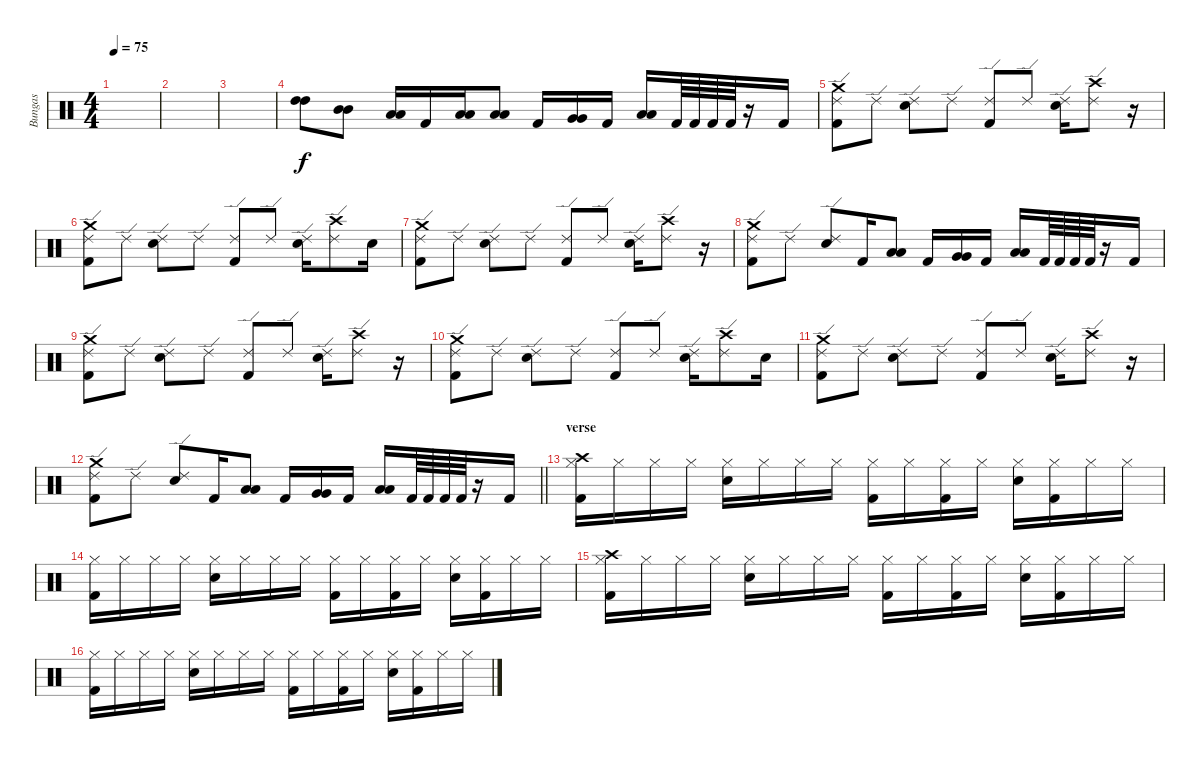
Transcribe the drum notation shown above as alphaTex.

\track ("Bungas" "Bungas") {instrument percussion}
\staff {score}
\articulation defaults
\ts (4 4)
\tempo 75
\clef neutral
\ks c
|
|
|
("High Tom (hit)" "High Tom (hit)").8 ("Mid Tom (hit)" "Mid Tom (hit)").8 ("Low Tom (hit)" "Low Tom (hit)").16 "Kick (hit) 2".16 ("Low Tom (hit)" "Low Tom (hit)").16 ("Low Tom (hit)" "Low Tom (hit)").8 "Kick (hit) 2".16 ("Very Low Tom (hit)" "Very Low Tom (hit)").16 "Kick (hit) 2".16 ("Low Floor Tom (hit)" "Low Floor Tom (hit)").16 "Kick (hit) 2".64 "Kick (hit) 2".64 "Kick (hit) 2".64 "Kick (hit) 2".64 r.16 "Kick (hit) 2".16 |
("Ride (edge) 2" "Crash medium (hit)" "Kick (hit) 2").8 "Ride (edge) 2".8 ("Ride (edge) 2" "Electric Snare (hit)").8 "Ride (edge) 2".8 ("Ride (edge) 2" "Kick (hit) 2").8 "Ride (edge) 2".8 ("Ride (edge) 2" "Electric Snare (hit)").16 ("Ride (edge) 2" "Crash high (hit)").8 r.16 |
("Ride (edge) 2" "Crash medium (hit)" "Kick (hit) 2").8 "Ride (edge) 2".8 ("Ride (edge) 2" "Electric Snare (hit)").8 "Ride (edge) 2".8 ("Ride (edge) 2" "Kick (hit) 2").8 "Ride (edge) 2".8 ("Ride (edge) 2" "Electric Snare (hit)").16 ("Ride (edge) 2" "Crash high (hit)").8 "Electric Snare (hit)".16 |
("Ride (edge) 2" "Crash medium (hit)" "Kick (hit) 2").8 "Ride (edge) 2".8 ("Ride (edge) 2" "Electric Snare (hit)").8 "Ride (edge) 2".8 ("Ride (edge) 2" "Kick (hit) 2").8 "Ride (edge) 2".8 ("Ride (edge) 2" "Electric Snare (hit)").16 ("Ride (edge) 2" "Crash high (hit)").8 r.16 |
("Ride (edge) 2" "Crash medium (hit)" "Kick (hit) 2").8 "Ride (edge) 2".8 ("Ride (edge) 2" "Electric Snare (hit)").8 "Kick (hit) 2".16 ("Low Tom (hit)" "Low Tom (hit)").8 "Kick (hit) 2".16 ("Very Low Tom (hit)" "Very Low Tom (hit)").16 "Kick (hit) 2".16 ("Low Floor Tom (hit)" "Low Floor Tom (hit)").16 "Kick (hit) 2".64 "Kick (hit) 2".64 "Kick (hit) 2".64 "Kick (hit) 2".64 r.16 "Kick (hit) 2".16 |
("Ride (edge) 2" "Crash medium (hit)" "Kick (hit) 2").8 "Ride (edge) 2".8 ("Ride (edge) 2" "Electric Snare (hit)").8 "Ride (edge) 2".8 ("Ride (edge) 2" "Kick (hit) 2").8 "Ride (edge) 2".8 ("Ride (edge) 2" "Electric Snare (hit)").16 ("Ride (edge) 2" "Crash high (hit)").8 r.16 |
("Ride (edge) 2" "Crash medium (hit)" "Kick (hit) 2").8 "Ride (edge) 2".8 ("Ride (edge) 2" "Electric Snare (hit)").8 "Ride (edge) 2".8 ("Ride (edge) 2" "Kick (hit) 2").8 "Ride (edge) 2".8 ("Ride (edge) 2" "Electric Snare (hit)").16 ("Ride (edge) 2" "Crash high (hit)").8 "Electric Snare (hit)".16 |
("Ride (edge) 2" "Crash medium (hit)" "Kick (hit) 2").8 "Ride (edge) 2".8 ("Ride (edge) 2" "Electric Snare (hit)").8 "Ride (edge) 2".8 ("Ride (edge) 2" "Kick (hit) 2").8 "Ride (edge) 2".8 ("Ride (edge) 2" "Electric Snare (hit)").16 ("Ride (edge) 2" "Crash high (hit)").8 r.16 |
\barLineRight lightlight
("Ride (edge) 2" "Crash medium (hit)" "Kick (hit) 2").8 "Ride (edge) 2".8 ("Ride (edge) 2" "Electric Snare (hit)").8 "Kick (hit) 2".16 ("Low Tom (hit)" "Low Tom (hit)").8 "Kick (hit) 2".16 ("Very Low Tom (hit)" "Very Low Tom (hit)").16 "Kick (hit) 2".16 ("Low Floor Tom (hit)" "Low Floor Tom (hit)").16 "Kick (hit) 2".64 "Kick (hit) 2".64 "Kick (hit) 2".64 "Kick (hit) 2".64 r.16 "Kick (hit) 2".16 |
\section ("" "verse")
("Hi-Hat (closed)" "Crash high (hit)" "Kick (hit) 2").16 "Hi-Hat (closed)".16 "Hi-Hat (closed)".16 "Hi-Hat (closed)".16 ("Hi-Hat (closed)" "Electric Snare (hit)").16 "Hi-Hat (closed)".16 "Hi-Hat (closed)".16 "Hi-Hat (closed)".16 ("Hi-Hat (closed)" "Kick (hit) 2").16 "Hi-Hat (closed)".16 ("Hi-Hat (closed)" "Kick (hit) 2").16 "Hi-Hat (closed)".16 ("Hi-Hat (closed)" "Electric Snare (hit)").16 ("Hi-Hat (closed)" "Kick (hit) 2").16 "Hi-Hat (closed)".16 "Hi-Hat (closed)".16 |
("Hi-Hat (closed)" "Kick (hit) 2").16 "Hi-Hat (closed)".16 "Hi-Hat (closed)".16 "Hi-Hat (closed)".16 ("Hi-Hat (closed)" "Electric Snare (hit)").16 "Hi-Hat (closed)".16 "Hi-Hat (closed)".16 "Hi-Hat (closed)".16 ("Hi-Hat (closed)" "Kick (hit) 2").16 "Hi-Hat (closed)".16 ("Hi-Hat (closed)" "Kick (hit) 2").16 "Hi-Hat (closed)".16 ("Hi-Hat (closed)" "Electric Snare (hit)").16 ("Hi-Hat (closed)" "Kick (hit) 2").16 "Hi-Hat (closed)".16 "Hi-Hat (closed)".16 |
("Hi-Hat (closed)" "Crash high (hit)" "Kick (hit) 2").16 "Hi-Hat (closed)".16 "Hi-Hat (closed)".16 "Hi-Hat (closed)".16 ("Hi-Hat (closed)" "Electric Snare (hit)").16 "Hi-Hat (closed)".16 "Hi-Hat (closed)".16 "Hi-Hat (closed)".16 ("Hi-Hat (closed)" "Kick (hit) 2").16 "Hi-Hat (closed)".16 ("Hi-Hat (closed)" "Kick (hit) 2").16 "Hi-Hat (closed)".16 ("Hi-Hat (closed)" "Electric Snare (hit)").16 ("Hi-Hat (closed)" "Kick (hit) 2").16 "Hi-Hat (closed)".16 "Hi-Hat (closed)".16 |
("Hi-Hat (closed)" "Kick (hit) 2").16 "Hi-Hat (closed)".16 "Hi-Hat (closed)".16 "Hi-Hat (closed)".16 ("Hi-Hat (closed)" "Electric Snare (hit)").16 "Hi-Hat (closed)".16 "Hi-Hat (closed)".16 "Hi-Hat (closed)".16 ("Hi-Hat (closed)" "Kick (hit) 2").16 "Hi-Hat (closed)".16 ("Hi-Hat (closed)" "Kick (hit) 2").16 "Hi-Hat (closed)".16 ("Hi-Hat (closed)" "Electric Snare (hit)").16 ("Hi-Hat (closed)" "Kick (hit) 2").16 "Hi-Hat (closed)".16 "Hi-Hat (closed)".16
